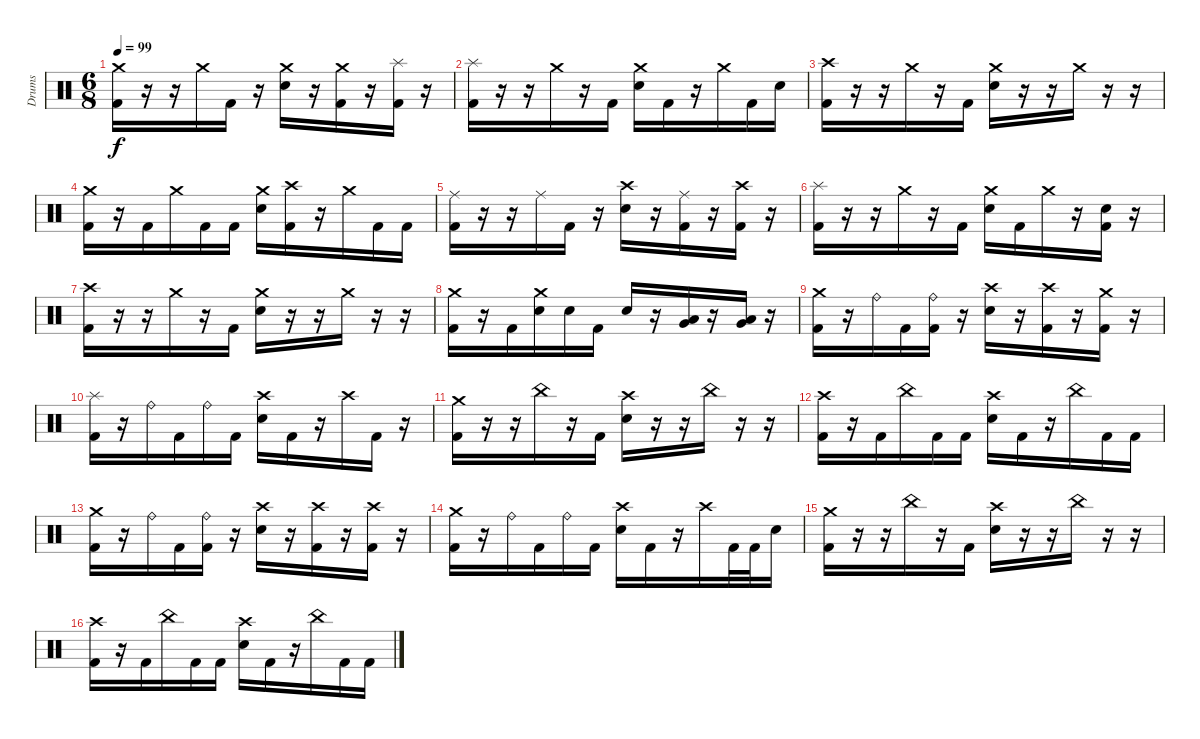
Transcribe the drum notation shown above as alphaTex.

\track ("Drums" "Drums") {instrument percussion}
\staff {score}
\articulation defaults
\ts (6 8)
\tempo 99
\clef neutral
\ks c
("Crash medium (hit)" "Kick (hit) 2").16{dy f} r.16 r.16 "Crash medium (hit)".16 "Kick (hit) 2".16 r.16 ("Crash medium (hit)" "Electric Snare (hit)").16 r.16 ("Crash medium (hit)" "Kick (hit) 2").16 r.16 ("Splash (hit)" "Kick (hit) 2").16 r.16 |
("Splash (hit)" "Kick (hit) 2").16 r.16 r.16 "Crash medium (hit)".16 r.16 "Kick (hit) 2".16 ("Crash medium (hit)" "Electric Snare (hit)").16 "Kick (hit) 2".16 r.16 "Crash medium (hit)".16 "Kick (hit) 2".16 "Electric Snare (hit)".16 |
("Crash high (hit)" "Kick (hit) 2").16 r.16 r.16 "Crash medium (hit)".16 r.16 "Kick (hit) 2".16 ("Crash medium (hit)" "Electric Snare (hit)").16 r.16 r.16 "Crash medium (hit)".16 r.16 r.16 |
("Crash medium (hit)" "Kick (hit) 2").16 r.16 "Kick (hit) 2".16 "Crash medium (hit)".16 "Kick (hit) 2".16 "Kick (hit) 2".16 ("Crash medium (hit)" "Electric Snare (hit)").16 ("Crash high (hit)" "Kick (hit) 2").16 r.16 "Crash medium (hit)".16 "Kick (hit) 2".16 "Kick (hit) 2".16 |
("Ride (middle)" "Kick (hit) 2").16 r.16 r.16 "Ride (middle)".16 "Kick (hit) 2".16 r.16 ("Crash high (hit)" "Electric Snare (hit)").16 r.16 ("Ride (middle)" "Kick (hit) 2").16 r.16 ("Crash high (hit)" "Kick (hit) 2").16 r.16 |
("Splash (hit)" "Kick (hit) 2").16 r.16 r.16 "Crash medium (hit)".16 r.16 "Kick (hit) 2".16 ("Crash medium (hit)" "Electric Snare (hit)").16 "Kick (hit) 2".16 "Crash medium (hit)".16 r.16 ("Electric Snare (hit)" "Kick (hit) 2").16 r.16 |
("Crash high (hit)" "Kick (hit) 2").16 r.16 r.16 "Crash medium (hit)".16 r.16 "Kick (hit) 2".16 ("Crash medium (hit)" "Electric Snare (hit)").16 r.16 r.16 "Crash medium (hit)".16 r.16 r.16 |
("Crash medium (hit)" "Kick (hit) 2").16 r.16 "Kick (hit) 2".16 ("Crash medium (hit)" "Electric Snare (hit)").16 "Electric Snare (hit)".16 "Kick (hit) 2".16 "Electric Snare (hit)".16 r.16 ("Low Tom (hit)" "Very Low Tom (hit)").16 r.16 ("Very Low Tom (hit)" "Low Floor Tom (hit)").16 r.16 |
("Crash medium (hit)" "Kick (hit) 2").16 r.16 "Ride (bell)".16 "Kick (hit) 2".16 ("Ride (bell)" "Kick (hit) 2").16 r.16 ("Crash high (hit)" "Electric Snare (hit)").16 r.16 ("Crash high (hit)" "Kick (hit) 2").16 r.16 ("Crash medium (hit)" "Kick (hit) 2").16 r.16 |
("Splash (hit)" "Kick (hit) 2").16 r.16 "Ride (bell)".16 "Kick (hit) 2".16 "Ride (bell)".16 "Kick (hit) 2".16 ("Crash high (hit)" "Electric Snare (hit)").16 "Kick (hit) 2".16 r.16 "Crash high (hit)".16 "Kick (hit) 2".16 r.16 |
("Crash medium (hit)" "Kick (hit) 2").16 r.16 r.16 "China (hit)".16 r.16 "Kick (hit) 2".16 ("Crash high (hit)" "Electric Snare (hit)").16 r.16 r.16 "China (hit)".16 r.16 r.16 |
("Crash high (hit)" "Kick (hit) 2").16 r.16 "Kick (hit) 2".16 "China (hit)".16 "Kick (hit) 2".16 "Kick (hit) 2".16 ("Crash high (hit)" "Electric Snare (hit)").16 "Kick (hit) 2".16 r.16 "China (hit)".16 "Kick (hit) 2".16 "Kick (hit) 2".16 |
("Crash medium (hit)" "Kick (hit) 2").16 r.16 "Ride (bell)".16 "Kick (hit) 2".16 ("Ride (bell)" "Kick (hit) 2").16 r.16 ("Crash high (hit)" "Electric Snare (hit)").16 r.16 ("Crash high (hit)" "Kick (hit) 2").16 r.16 ("Crash high (hit)" "Kick (hit) 2").16 r.16 |
("Crash medium (hit)" "Kick (hit) 2").16 r.16 "Ride (bell)".16 "Kick (hit) 2".16 "Ride (bell)".16 "Kick (hit) 2".16 ("Crash high (hit)" "Electric Snare (hit)").16 "Kick (hit) 2".16 r.16 "Crash high (hit)".16 "Kick (hit) 2".32 "Kick (hit) 2".32 "Electric Snare (hit)".16 |
("Crash medium (hit)" "Kick (hit) 2").16 r.16 r.16 "China (hit)".16 r.16 "Kick (hit) 2".16 ("Crash high (hit)" "Electric Snare (hit)").16 r.16 r.16 "China (hit)".16 r.16 r.16 |
("Crash high (hit)" "Kick (hit) 2").16 r.16 "Kick (hit) 2".16 "China (hit)".16 "Kick (hit) 2".16 "Kick (hit) 2".16 ("Crash high (hit)" "Electric Snare (hit)").16 "Kick (hit) 2".16 r.16 "China (hit)".16 "Kick (hit) 2".16 "Kick (hit) 2".16
